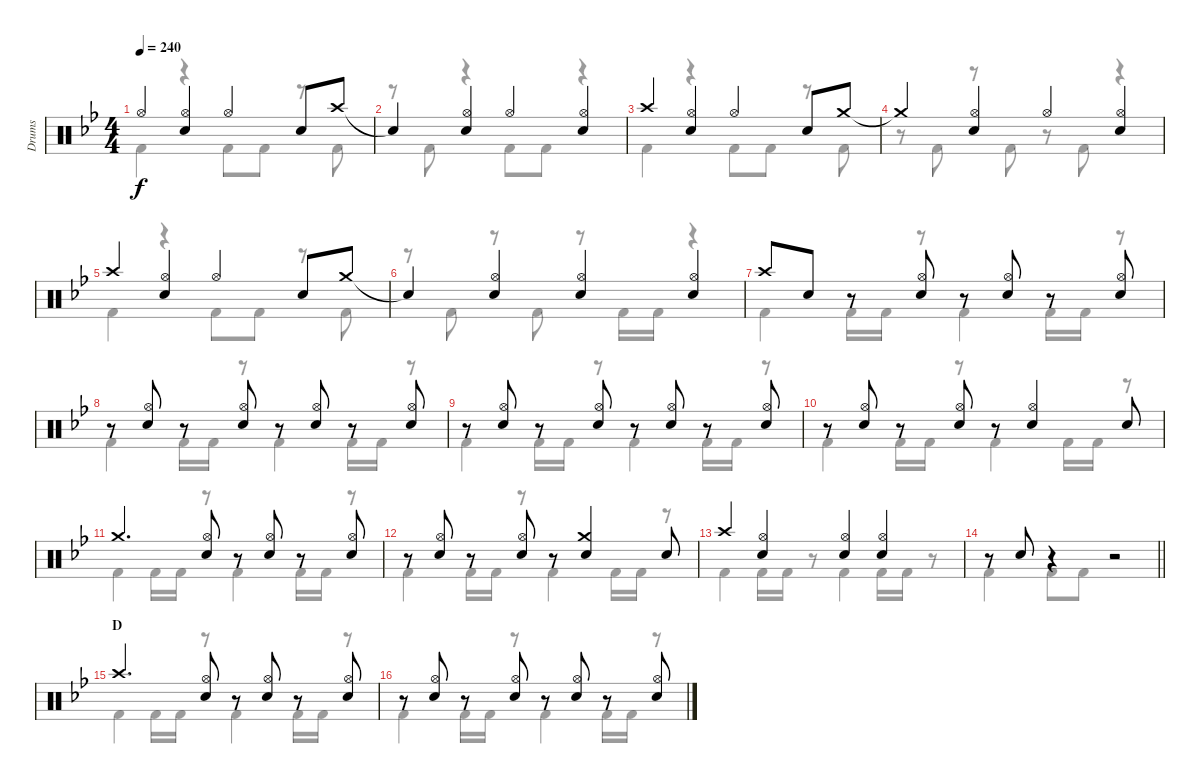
\track ("Drums" "Drums") {instrument percussion}
\staff {score}
\articulation defaults
\voice
\ts (4 4)
\tempo 240
\clef neutral
\ks bb "Hi-Hat (open)".4{dy f}
("Hi-Hat (open)" "Snare (hit) 2").4 "Hi-Hat (open)".4 "Snare (hit) 2".8 "Crash high (hit)".8 |
"Snare (hit)"{t}.4 ("Hi-Hat (open)" "Snare (hit) 2").4 "Hi-Hat (open)".4 ("Hi-Hat (open)" "Snare (hit) 2").4 |
"Crash high (hit)".4 ("Hi-Hat (open)" "Snare (hit) 2").4 "Hi-Hat (open)".4 "Snare (hit) 2".8 "Crash medium (hit)".8 |
"Crash medium (hit)"{t}.4 ("Hi-Hat (open)" "Snare (hit) 2").4 "Hi-Hat (open)".4 ("Hi-Hat (open)" "Snare (hit) 2").4 |
"Crash high (hit)".4 ("Hi-Hat (open)" "Snare (hit) 2").4 "Hi-Hat (open)".4 "Snare (hit) 2".8 "Crash medium (hit)".8 |
"Snare (hit)"{t}.4 ("Hi-Hat (open)" "Snare (hit) 2").4 ("Hi-Hat (open)" "Snare (hit) 2").4 ("Hi-Hat (open)" "Snare (hit) 2").4 |
"Crash high (hit)".8 "Snare (hit) 2".8 r.8 ("Hi-Hat (open)" "Snare (hit) 2").8 r.8 ("Hi-Hat (open)" "Snare (hit) 2").8 r.8 ("Hi-Hat (open)" "Snare (hit) 2").8 |
r.8 ("Hi-Hat (open)" "Snare (hit) 2").8 r.8 ("Hi-Hat (open)" "Snare (hit) 2").8 r.8 ("Hi-Hat (open)" "Snare (hit) 2").8 r.8 ("Hi-Hat (open)" "Snare (hit) 2").8 |
r.8 ("Hi-Hat (open)" "Snare (hit) 2").8 r.8 ("Hi-Hat (open)" "Snare (hit) 2").8 r.8 ("Hi-Hat (open)" "Snare (hit) 2").8 r.8 ("Hi-Hat (open)" "Snare (hit) 2").8 |
r.8 ("Hi-Hat (open)" "Snare (hit) 2").8 r.8 ("Hi-Hat (open)" "Snare (hit) 2").8 r.8 ("Hi-Hat (open)" "Snare (hit) 2").4 "Snare (hit) 2".8 |
"Crash medium (hit)".4{d} ("Hi-Hat (open)" "Snare (hit) 2").8 r.8 ("Hi-Hat (open)" "Snare (hit) 2").8 r.8 ("Hi-Hat (open)" "Snare (hit) 2").8 |
r.8 ("Hi-Hat (open)" "Snare (hit) 2").8 r.8 ("Hi-Hat (open)" "Snare (hit) 2").8 r.8 ("Crash medium (hit)" "Snare (hit) 2").4 "Snare (hit) 2".8 |
"Crash high (hit)".4 ("Hi-Hat (open)" "Snare (hit) 2").4 ("Hi-Hat (open)" "Snare (hit) 2").4 ("Hi-Hat (open)" "Snare (hit) 2").4 |
\barLineRight lightlight
r.8 "Snare (hit) 2".8 r.4 r.2 |
\section ("" "D")
"Crash high (hit)".4{d} ("Hi-Hat (open)" "Snare (hit) 2").8 r.8 ("Hi-Hat (open)" "Snare (hit) 2").8 r.8 ("Hi-Hat (open)" "Snare (hit) 2").8 |
r.8 ("Hi-Hat (open)" "Snare (hit) 2").8 r.8 ("Hi-Hat (open)" "Snare (hit) 2").8 r.8 ("Hi-Hat (open)" "Snare (hit) 2").8 r.8 ("Hi-Hat (open)" "Snare (hit) 2").8
\voice
\clef neutral
\ottava regular
\simile none
\ks bb "Kick (hit) 2".4{dy f}
r.4 "Kick (hit) 2".8 "Kick (hit) 2".8 r.8 "Kick (hit) 2".8 |
r.8 "Kick (hit) 2".8 r.4 "Kick (hit) 2".8 "Kick (hit) 2".8 r.4 |
"Kick (hit) 2".4 r.4 "Kick (hit) 2".8 "Kick (hit) 2".8 r.8 "Kick (hit) 2".8 |
r.8 "Kick (hit) 2".8 r.8 "Kick (hit) 2".8 r.8 "Kick (hit) 2".8 r.4 |
"Kick (hit) 2".4 r.4 "Kick (hit) 2".8 "Kick (hit) 2".8 r.8 "Kick (hit) 2".8 |
r.8 "Kick (hit) 2".8 r.8 "Kick (hit) 2".8 r.8 "Kick (hit) 2".16 "Kick (hit) 2".16 r.4 |
"Kick (hit) 2".4 "Kick (hit) 2".16 "Kick (hit) 2".16 r.8 "Kick (hit) 2".4 "Kick (hit) 2".16 "Kick (hit) 2".16 r.8 |
"Kick (hit) 2".4 "Kick (hit) 2".16 "Kick (hit) 2".16 r.8 "Kick (hit) 2".4 "Kick (hit) 2".16 "Kick (hit) 2".16 r.8 |
"Kick (hit) 2".4 "Kick (hit) 2".16 "Kick (hit) 2".16 r.8 "Kick (hit) 2".4 "Kick (hit) 2".16 "Kick (hit) 2".16 r.8 |
"Kick (hit) 2".4 "Kick (hit) 2".16 "Kick (hit) 2".16 r.8 "Kick (hit) 2".4 "Kick (hit) 2".16 "Kick (hit) 2".16 r.8 |
"Kick (hit) 2".4 "Kick (hit) 2".16 "Kick (hit) 2".16 r.8 "Kick (hit) 2".4 "Kick (hit) 2".16 "Kick (hit) 2".16 r.8 |
"Kick (hit) 2".4 "Kick (hit) 2".16 "Kick (hit) 2".16 r.8 "Kick (hit) 2".4 "Kick (hit) 2".16 "Kick (hit) 2".16 r.8 |
"Kick (hit) 2".4 "Kick (hit) 2".16 "Kick (hit) 2".16 r.8 "Kick (hit) 2".4 "Kick (hit) 2".16 "Kick (hit) 2".16 r.8 |
\barLineRight lightlight "Kick (hit) 2".4 "Kick (hit) 2".8 "Kick (hit) 2".8
r.2 |
"Kick (hit) 2".4 "Kick (hit) 2".16 "Kick (hit) 2".16 r.8 "Kick (hit) 2".4 "Kick (hit) 2".16 "Kick (hit) 2".16 r.8 |
"Kick (hit) 2".4 "Kick (hit) 2".16 "Kick (hit) 2".16 r.8 "Kick (hit) 2".4 "Kick (hit) 2".16 "Kick (hit) 2".16 r.8
